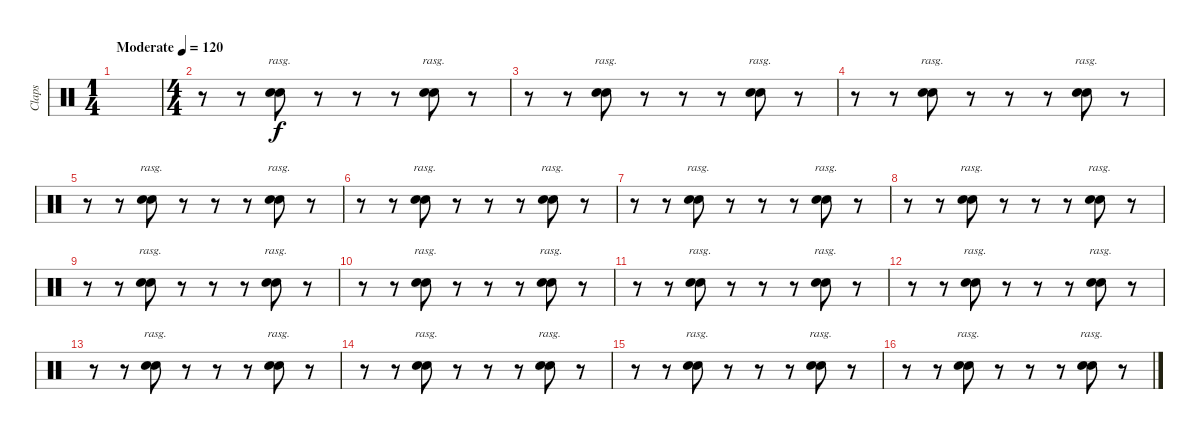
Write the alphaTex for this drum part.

\track ("Claps" "Claps") {instrument percussion}
\staff {score}
\articulation defaults
\ts (1 4)
\tempo (120 "Moderate")
\clef neutral
\ks c
|
\ts (4 4)
r.8 r.8 ("Hand Clap (hit)" "Hand Clap (hit)").8{bd 60 rasg ii} r.8 r.8 r.8 ("Hand Clap (hit)" "Hand Clap (hit)").8{bd 60 rasg ii} r.8 |
r.8 r.8 ("Hand Clap (hit)" "Hand Clap (hit)").8{bd 60 rasg ii} r.8 r.8 r.8 ("Hand Clap (hit)" "Hand Clap (hit)").8{bd 60 rasg ii} r.8 |
r.8 r.8 ("Hand Clap (hit)" "Hand Clap (hit)").8{bd 60 rasg ii} r.8 r.8 r.8 ("Hand Clap (hit)" "Hand Clap (hit)").8{bd 60 rasg ii} r.8 |
r.8 r.8 ("Hand Clap (hit)" "Hand Clap (hit)").8{bd 60 rasg ii} r.8 r.8 r.8 ("Hand Clap (hit)" "Hand Clap (hit)").8{bd 60 rasg ii} r.8 |
r.8 r.8 ("Hand Clap (hit)" "Hand Clap (hit)").8{bd 60 rasg ii} r.8 r.8 r.8 ("Hand Clap (hit)" "Hand Clap (hit)").8{bd 60 rasg ii} r.8 |
r.8 r.8 ("Hand Clap (hit)" "Hand Clap (hit)").8{bd 60 rasg ii} r.8 r.8 r.8 ("Hand Clap (hit)" "Hand Clap (hit)").8{bd 60 rasg ii} r.8 |
r.8 r.8 ("Hand Clap (hit)" "Hand Clap (hit)").8{bd 60 rasg ii} r.8 r.8 r.8 ("Hand Clap (hit)" "Hand Clap (hit)").8{bd 60 rasg ii} r.8 |
r.8 r.8 ("Hand Clap (hit)" "Hand Clap (hit)").8{bd 60 rasg ii} r.8 r.8 r.8 ("Hand Clap (hit)" "Hand Clap (hit)").8{bd 60 rasg ii} r.8 |
r.8 r.8 ("Hand Clap (hit)" "Hand Clap (hit)").8{bd 60 rasg ii} r.8 r.8 r.8 ("Hand Clap (hit)" "Hand Clap (hit)").8{bd 60 rasg ii} r.8 |
r.8 r.8 ("Hand Clap (hit)" "Hand Clap (hit)").8{bd 60 rasg ii} r.8 r.8 r.8 ("Hand Clap (hit)" "Hand Clap (hit)").8{bd 60 rasg ii} r.8 |
r.8 r.8 ("Hand Clap (hit)" "Hand Clap (hit)").8{bd 60 rasg ii} r.8 r.8 r.8 ("Hand Clap (hit)" "Hand Clap (hit)").8{bd 60 rasg ii} r.8 |
r.8 r.8 ("Hand Clap (hit)" "Hand Clap (hit)").8{bd 60 rasg ii} r.8 r.8 r.8 ("Hand Clap (hit)" "Hand Clap (hit)").8{bd 60 rasg ii} r.8 |
r.8 r.8 ("Hand Clap (hit)" "Hand Clap (hit)").8{bd 60 rasg ii} r.8 r.8 r.8 ("Hand Clap (hit)" "Hand Clap (hit)").8{bd 60 rasg ii} r.8 |
r.8 r.8 ("Hand Clap (hit)" "Hand Clap (hit)").8{bd 60 rasg ii} r.8 r.8 r.8 ("Hand Clap (hit)" "Hand Clap (hit)").8{bd 60 rasg ii} r.8 |
r.8 r.8 ("Hand Clap (hit)" "Hand Clap (hit)").8{bd 60 rasg ii} r.8 r.8 r.8 ("Hand Clap (hit)" "Hand Clap (hit)").8{bd 60 rasg ii} r.8
